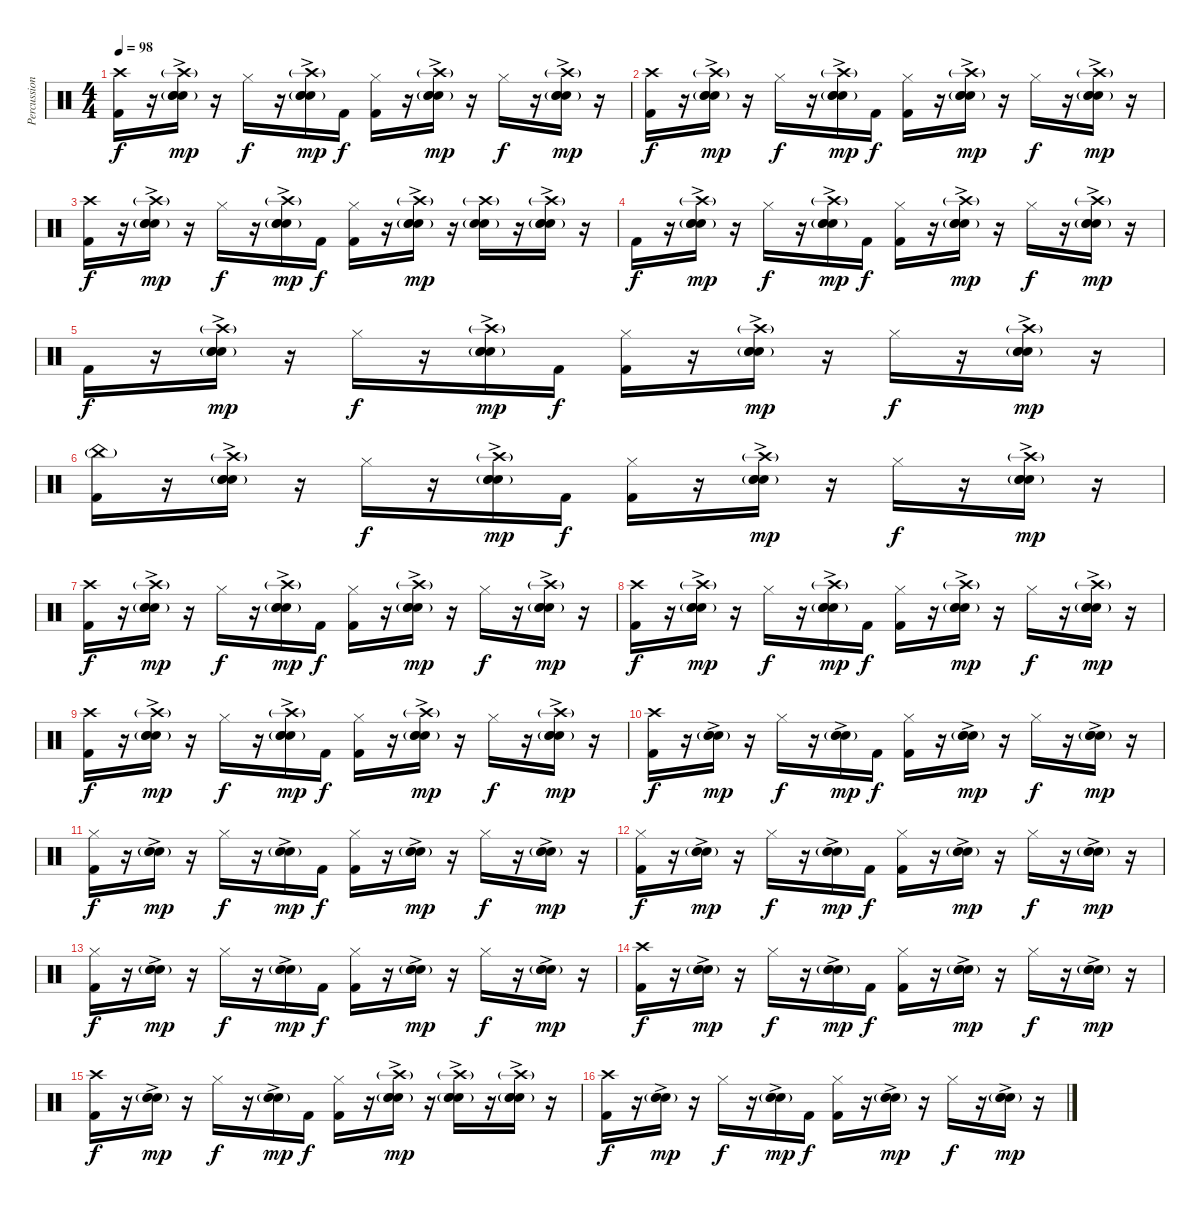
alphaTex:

\track ("Percussion" "Percussion") {instrument percussion}
\staff {score}
\articulation defaults
\ts (4 4)
\tempo 98
\clef neutral
\ks c
("Crash high (hit)" "Kick (hit) 2").16{dy f} r.16 ("Snare (hit) 2" "Hand Clap (hit)"{ac} "Crash high (hit)"{g} "Electric Snare (hit)"{g}).16{dy mp} r.16 "Hi-Hat (closed)".16{dy f} r.16 ("Snare (hit) 2" "Hand Clap (hit)"{ac} "Crash high (hit)"{g} "Electric Snare (hit)"{g}).16{dy mp} "Kick (hit) 2".16{dy f} ("Hi-Hat (closed)" "Kick (hit) 2").16 r.16 ("Snare (hit) 2" "Hand Clap (hit)"{ac} "Crash high (hit)"{g} "Electric Snare (hit)"{g}).16{dy mp} r.16 "Hi-Hat (closed)".16{dy f} r.16 ("Snare (hit) 2" "Hand Clap (hit)"{ac} "Crash high (hit)"{g} "Electric Snare (hit)"{g}).16{dy mp} r.16 |
("Crash high (hit)" "Kick (hit) 2").16{dy f} r.16 ("Snare (hit) 2" "Hand Clap (hit)"{ac} "Crash high (hit)"{g} "Electric Snare (hit)"{g}).16{dy mp} r.16 "Hi-Hat (closed)".16{dy f} r.16 ("Snare (hit) 2" "Hand Clap (hit)"{ac} "Crash high (hit)"{g} "Electric Snare (hit)"{g}).16{dy mp} "Kick (hit) 2".16{dy f} ("Hi-Hat (closed)" "Kick (hit) 2").16 r.16 ("Snare (hit) 2" "Hand Clap (hit)"{ac} "Crash high (hit)"{g} "Electric Snare (hit)"{g}).16{dy mp} r.16 "Hi-Hat (closed)".16{dy f} r.16 ("Snare (hit) 2" "Hand Clap (hit)"{ac} "Crash high (hit)"{g} "Electric Snare (hit)"{g}).16{dy mp} r.16 |
("Crash high (hit)" "Kick (hit) 2").16{dy f} r.16 ("Snare (hit) 2" "Hand Clap (hit)"{ac} "Crash high (hit)"{g} "Electric Snare (hit)"{g}).16{dy mp} r.16 "Hi-Hat (closed)".16{dy f} r.16 ("Snare (hit) 2" "Hand Clap (hit)"{ac} "Crash high (hit)"{g} "Electric Snare (hit)"{g}).16{dy mp} "Kick (hit) 2".16{dy f} ("Hi-Hat (closed)" "Kick (hit) 2").16 r.16 ("Snare (hit) 2" "Hand Clap (hit)"{ac} "Crash high (hit)"{g} "Electric Snare (hit)"{g}).16{dy mp} r.16 ("Snare (hit) 2" "Crash high (hit)"{g} "Electric Snare (hit)"{g}).16 r.16 ("Snare (hit) 2" "Hand Clap (hit)"{ac} "Crash high (hit)"{g} "Electric Snare (hit)"{g}).16 r.16 |
"Kick (hit) 2".16{dy f} r.16 ("Snare (hit) 2" "Hand Clap (hit)"{ac} "Crash high (hit)"{g} "Electric Snare (hit)"{g}).16{dy mp} r.16 "Hi-Hat (closed)".16{dy f} r.16 ("Snare (hit) 2" "Hand Clap (hit)"{ac} "Crash high (hit)"{g} "Electric Snare (hit)"{g}).16{dy mp} "Kick (hit) 2".16{dy f} ("Hi-Hat (closed)" "Kick (hit) 2").16 r.16 ("Snare (hit) 2" "Hand Clap (hit)"{ac} "Crash high (hit)"{g} "Electric Snare (hit)"{g}).16{dy mp} r.16 "Hi-Hat (closed)".16{dy f} r.16 ("Snare (hit) 2" "Hand Clap (hit)"{ac} "Crash high (hit)"{g} "Electric Snare (hit)"{g}).16{dy mp} r.16 |
"Kick (hit) 2".16{dy f} r.16 ("Snare (hit) 2" "Hand Clap (hit)"{ac} "Crash high (hit)"{g} "Electric Snare (hit)"{g}).16{dy mp} r.16 "Hi-Hat (closed)".16{dy f} r.16 ("Snare (hit) 2" "Hand Clap (hit)"{ac} "Crash high (hit)"{g} "Electric Snare (hit)"{g}).16{dy mp} "Kick (hit) 2".16{dy f} ("Hi-Hat (closed)" "Kick (hit) 2").16 r.16 ("Snare (hit) 2" "Hand Clap (hit)"{ac} "Crash high (hit)"{g} "Electric Snare (hit)"{g}).16{dy mp} r.16 "Hi-Hat (closed)".16{dy f} r.16 ("Snare (hit) 2" "Hand Clap (hit)"{ac} "Crash high (hit)"{g} "Electric Snare (hit)"{g}).16{dy mp} r.16 |
("China (hit)"{g} "Kick (hit) 2").16 r.16 ("Snare (hit) 2" "Hand Clap (hit)"{ac} "Crash high (hit)"{g} "Electric Snare (hit)"{g}).16 r.16 "Hi-Hat (closed)".16{dy f} r.16 ("Snare (hit) 2" "Hand Clap (hit)"{ac} "Crash high (hit)"{g} "Electric Snare (hit)"{g}).16{dy mp} "Kick (hit) 2".16{dy f} ("Hi-Hat (closed)" "Kick (hit) 2").16 r.16 ("Snare (hit) 2" "Hand Clap (hit)"{ac} "Crash high (hit)"{g} "Electric Snare (hit)"{g}).16{dy mp} r.16 "Hi-Hat (closed)".16{dy f} r.16 ("Snare (hit) 2" "Hand Clap (hit)"{ac} "Crash high (hit)"{g} "Electric Snare (hit)"{g}).16{dy mp} r.16 |
("Crash high (hit)" "Kick (hit) 2").16{dy f} r.16 ("Snare (hit) 2" "Hand Clap (hit)"{ac} "Crash high (hit)"{g} "Electric Snare (hit)"{g}).16{dy mp} r.16 "Hi-Hat (closed)".16{dy f} r.16 ("Snare (hit) 2" "Hand Clap (hit)"{ac} "Crash high (hit)"{g} "Electric Snare (hit)"{g}).16{dy mp} "Kick (hit) 2".16{dy f} ("Hi-Hat (closed)" "Kick (hit) 2").16 r.16 ("Snare (hit) 2" "Hand Clap (hit)"{ac} "Crash high (hit)"{g} "Electric Snare (hit)"{g}).16{dy mp} r.16 "Hi-Hat (closed)".16{dy f} r.16 ("Snare (hit) 2" "Hand Clap (hit)"{ac} "Crash high (hit)"{g} "Electric Snare (hit)"{g}).16{dy mp} r.16 |
("Crash high (hit)" "Kick (hit) 2").16{dy f} r.16 ("Snare (hit) 2" "Hand Clap (hit)"{ac} "Crash high (hit)"{g} "Electric Snare (hit)"{g}).16{dy mp} r.16 "Hi-Hat (closed)".16{dy f} r.16 ("Snare (hit) 2" "Hand Clap (hit)"{ac} "Crash high (hit)"{g} "Electric Snare (hit)"{g}).16{dy mp} "Kick (hit) 2".16{dy f} ("Hi-Hat (closed)" "Kick (hit) 2").16 r.16 ("Snare (hit) 2" "Hand Clap (hit)"{ac} "Crash high (hit)"{g} "Electric Snare (hit)"{g}).16{dy mp} r.16 "Hi-Hat (closed)".16{dy f} r.16 ("Snare (hit) 2" "Hand Clap (hit)"{ac} "Crash high (hit)"{g} "Electric Snare (hit)"{g}).16{dy mp} r.16 |
("Crash high (hit)" "Kick (hit) 2").16{dy f} r.16 ("Snare (hit) 2" "Hand Clap (hit)"{ac} "Crash high (hit)"{g} "Electric Snare (hit)"{g}).16{dy mp} r.16 "Hi-Hat (closed)".16{dy f} r.16 ("Snare (hit) 2" "Hand Clap (hit)"{ac} "Crash high (hit)"{g} "Electric Snare (hit)"{g}).16{dy mp} "Kick (hit) 2".16{dy f} ("Hi-Hat (closed)" "Kick (hit) 2").16 r.16 ("Snare (hit) 2" "Hand Clap (hit)"{ac} "Crash high (hit)"{g} "Electric Snare (hit)"{g}).16{dy mp} r.16 "Hi-Hat (closed)".16{dy f} r.16 ("Snare (hit) 2" "Hand Clap (hit)"{ac} "Crash high (hit)"{g} "Electric Snare (hit)"{g}).16{dy mp} r.16 |
("Crash high (hit)" "Kick (hit) 2").16{dy f} r.16 ("Hand Clap (hit)"{ac} "Snare (hit) 2" "Electric Snare (hit)"{g}).16{dy mp} r.16 "Hi-Hat (closed)".16{dy f} r.16 ("Hand Clap (hit)"{ac} "Snare (hit) 2" "Electric Snare (hit)"{g}).16{dy mp} "Kick (hit) 2".16{dy f} ("Hi-Hat (closed)" "Kick (hit) 2").16 r.16 ("Hand Clap (hit)"{ac} "Snare (hit) 2" "Electric Snare (hit)"{g}).16{dy mp} r.16 "Hi-Hat (closed)".16{dy f} r.16 ("Hand Clap (hit)"{ac} "Snare (hit) 2" "Electric Snare (hit)"{g}).16{dy mp} r.16 |
("Hi-Hat (closed)" "Kick (hit) 2").16{dy f} r.16 ("Snare (hit) 2" "Hand Clap (hit)"{ac} "Electric Snare (hit)"{g}).16{dy mp} r.16 "Hi-Hat (closed)".16{dy f} r.16 ("Snare (hit) 2" "Hand Clap (hit)"{ac} "Electric Snare (hit)"{g}).16{dy mp} "Kick (hit) 2".16{dy f} ("Hi-Hat (closed)" "Kick (hit) 2").16 r.16 ("Snare (hit) 2" "Hand Clap (hit)"{ac} "Electric Snare (hit)"{g}).16{dy mp} r.16 "Hi-Hat (closed)".16{dy f} r.16 ("Snare (hit) 2" "Hand Clap (hit)"{ac} "Electric Snare (hit)"{g}).16{dy mp} r.16 |
("Hi-Hat (closed)" "Kick (hit) 2").16{dy f} r.16 ("Snare (hit) 2" "Hand Clap (hit)"{ac} "Electric Snare (hit)"{g}).16{dy mp} r.16 "Hi-Hat (closed)".16{dy f} r.16 ("Snare (hit) 2" "Hand Clap (hit)"{ac} "Electric Snare (hit)"{g}).16{dy mp} "Kick (hit) 2".16{dy f} ("Hi-Hat (closed)" "Kick (hit) 2").16 r.16 ("Snare (hit) 2" "Hand Clap (hit)"{ac} "Electric Snare (hit)"{g}).16{dy mp} r.16 "Hi-Hat (closed)".16{dy f} r.16 ("Snare (hit) 2" "Hand Clap (hit)"{ac} "Electric Snare (hit)"{g}).16{dy mp} r.16 |
("Hi-Hat (closed)" "Kick (hit) 2").16{dy f} r.16 ("Snare (hit) 2" "Hand Clap (hit)"{ac} "Electric Snare (hit)"{g}).16{dy mp} r.16 "Hi-Hat (closed)".16{dy f} r.16 ("Snare (hit) 2" "Hand Clap (hit)"{ac} "Electric Snare (hit)"{g}).16{dy mp} "Kick (hit) 2".16{dy f} ("Hi-Hat (closed)" "Kick (hit) 2").16 r.16 ("Snare (hit) 2" "Hand Clap (hit)"{ac} "Electric Snare (hit)"{g}).16{dy mp} r.16 "Hi-Hat (closed)".16{dy f} r.16 ("Snare (hit) 2" "Hand Clap (hit)"{ac} "Electric Snare (hit)"{g}).16{dy mp} r.16 |
("Crash high (hit)" "Kick (hit) 2").16{dy f} r.16 ("Snare (hit) 2" "Hand Clap (hit)"{ac} "Electric Snare (hit)"{g}).16{dy mp} r.16 "Hi-Hat (closed)".16{dy f} r.16 ("Snare (hit) 2" "Hand Clap (hit)"{ac} "Electric Snare (hit)"{g}).16{dy mp} "Kick (hit) 2".16{dy f} ("Hi-Hat (closed)" "Kick (hit) 2").16 r.16 ("Snare (hit) 2" "Hand Clap (hit)"{ac} "Electric Snare (hit)"{g}).16{dy mp} r.16 "Hi-Hat (closed)".16{dy f} r.16 ("Snare (hit) 2" "Hand Clap (hit)"{ac} "Electric Snare (hit)"{g}).16{dy mp} r.16 |
("Crash high (hit)" "Kick (hit) 2").16{dy f} r.16 ("Hand Clap (hit)"{ac} "Electric Snare (hit)"{g} "Snare (hit) 2").16{dy mp} r.16 "Hi-Hat (closed)".16{dy f} r.16 ("Hand Clap (hit)"{ac} "Electric Snare (hit)"{g} "Snare (hit) 2").16{dy mp} "Kick (hit) 2".16{dy f} ("Hi-Hat (closed)" "Kick (hit) 2").16 r.16 ("Snare (hit) 2" "Hand Clap (hit)"{ac} "Crash high (hit)"{g} "Electric Snare (hit)"{g}).16{dy mp} r.16 ("Snare (hit) 2" "Hand Clap (hit)"{ac} "Crash high (hit)"{g} "Electric Snare (hit)"{g}).16 r.16 ("Snare (hit) 2" "Hand Clap (hit)"{ac} "Crash high (hit)"{g} "Electric Snare (hit)"{g}).16 r.16 |
("Crash high (hit)" "Kick (hit) 2").16{dy f} r.16 ("Snare (hit) 2" "Hand Clap (hit)"{ac} "Electric Snare (hit)"{g}).16{dy mp} r.16 "Hi-Hat (closed)".16{dy f} r.16 ("Snare (hit) 2" "Hand Clap (hit)"{ac} "Electric Snare (hit)"{g}).16{dy mp} "Kick (hit) 2".16{dy f} ("Hi-Hat (closed)" "Kick (hit) 2").16 r.16 ("Snare (hit) 2" "Hand Clap (hit)"{ac} "Electric Snare (hit)"{g}).16{dy mp} r.16 "Hi-Hat (closed)".16{dy f} r.16 ("Snare (hit) 2" "Hand Clap (hit)"{ac} "Electric Snare (hit)"{g}).16{dy mp} r.16
